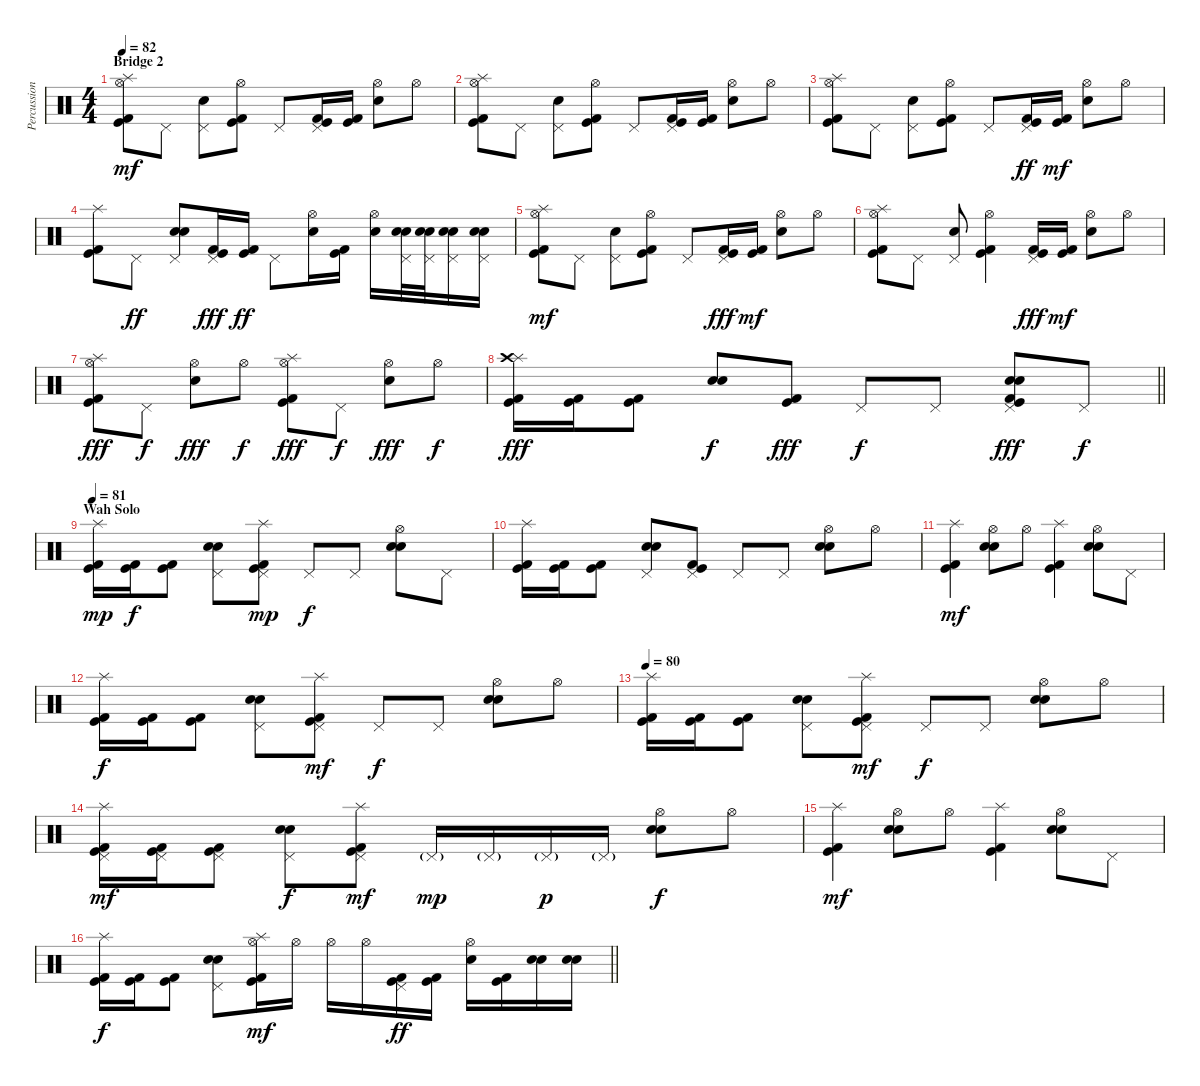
\track ("Percussion" "Percussion") {instrument percussion}
\staff {score}
\articulation defaults
\ts (4 4)
\section ("" "Bridge 2")
\tempo 82
\clef neutral
\ks c
("Splash (hit)" "Hi-Hat (open)" "Kick (hit)" "Kick (hit) 2").8{dy mf} "Pedal Hi-Hat (hit)".8 ("Snare (hit) 2" "Pedal Hi-Hat (hit)").8 ("Hi-Hat (open)" "Kick (hit)" "Kick (hit) 2").8 "Pedal Hi-Hat (hit)".8 ("Pedal Hi-Hat (hit)" "Kick (hit)" "Kick (hit) 2").16 ("Kick (hit)" "Kick (hit) 2").16 ("Snare (hit) 2" "Hi-Hat (open)").8 "Hi-Hat (open)".8 |
("Splash (hit)" "Hi-Hat (open)" "Kick (hit)" "Kick (hit) 2").8 "Pedal Hi-Hat (hit)".8 ("Snare (hit) 2" "Pedal Hi-Hat (hit)").8 ("Hi-Hat (open)" "Kick (hit)" "Kick (hit) 2").8 "Pedal Hi-Hat (hit)".8 ("Pedal Hi-Hat (hit)" "Kick (hit)" "Kick (hit) 2").16 ("Kick (hit)" "Kick (hit) 2").16 ("Snare (hit) 2" "Hi-Hat (open)").8 "Hi-Hat (open)".8 |
("Splash (hit)" "Hi-Hat (open)" "Kick (hit)" "Kick (hit) 2").8 "Pedal Hi-Hat (hit)".8 ("Snare (hit) 2" "Pedal Hi-Hat (hit)").8 ("Hi-Hat (open)" "Kick (hit)" "Kick (hit) 2").8 "Pedal Hi-Hat (hit)".8 ("Pedal Hi-Hat (hit)" "Kick (hit)" "Kick (hit) 2").16{dy ff} ("Kick (hit)" "Kick (hit) 2").16{dy mf} ("Snare (hit) 2" "Hi-Hat (open)").8 "Hi-Hat (open)".8 |
("Splash (hit)" "Kick (hit)" "Kick (hit) 2").8 "Pedal Hi-Hat (hit)".8{dy ff} ("Snare (hit) 2" "Electric Snare (hit)" "Pedal Hi-Hat (hit)").8 ("Pedal Hi-Hat (hit)" "Kick (hit)" "Kick (hit) 2").16{dy fff} ("Kick (hit)" "Kick (hit) 2").16{dy ff} "Pedal Hi-Hat (hit)".8 ("Snare (hit) 2" "Hi-Hat (open)").16 ("Kick (hit)" "Kick (hit) 2").16 ("Snare (hit) 2" "Hi-Hat (open)").16 ("Snare (hit) 2" "Electric Snare (hit)" "Pedal Hi-Hat (hit)").32 ("Snare (hit) 2" "Electric Snare (hit)" "Pedal Hi-Hat (hit)").32 ("Snare (hit) 2" "Electric Snare (hit)" "Pedal Hi-Hat (hit)").16 ("Snare (hit) 2" "Electric Snare (hit)" "Pedal Hi-Hat (hit)").16 |
("Splash (hit)" "Hi-Hat (open)" "Kick (hit)" "Kick (hit) 2").8{dy mf} "Pedal Hi-Hat (hit)".8 ("Snare (hit) 2" "Pedal Hi-Hat (hit)").8 ("Hi-Hat (open)" "Kick (hit)" "Kick (hit) 2").8 "Pedal Hi-Hat (hit)".8 ("Pedal Hi-Hat (hit)" "Kick (hit)" "Kick (hit) 2").16{dy fff} ("Kick (hit)" "Kick (hit) 2").16{dy mf} ("Snare (hit) 2" "Hi-Hat (open)").8 "Hi-Hat (open)".8 |
("Splash (hit)" "Hi-Hat (open)" "Kick (hit)" "Kick (hit) 2").8 "Pedal Hi-Hat (hit)".8 ("Snare (hit) 2" "Pedal Hi-Hat (hit)").8 ("Hi-Hat (open)" "Kick (hit)" "Kick (hit) 2").4 ("Pedal Hi-Hat (hit)" "Kick (hit)" "Kick (hit) 2").16{dy fff} ("Kick (hit)" "Kick (hit) 2").16{dy mf} ("Snare (hit) 2" "Hi-Hat (open)").8 "Hi-Hat (open)".8 |
("Splash (hit)" "Hi-Hat (open)" "Kick (hit)" "Kick (hit) 2").8{dy fff} "Pedal Hi-Hat (hit)".8{dy f} ("Snare (hit) 2" "Hi-Hat (open)").8{dy fff} "Hi-Hat (open)".8{dy f} ("Splash (hit)" "Hi-Hat (open)" "Kick (hit)" "Kick (hit) 2").8{dy fff} "Pedal Hi-Hat (hit)".8{dy f} ("Snare (hit) 2" "Hi-Hat (open)").8{dy fff} "Hi-Hat (open)".8{dy f} |
\barLineRight lightlight
("Splash (hit)" "Crash high (hit)" "Kick (hit)" "Kick (hit) 2").16{dy fff} ("Kick (hit)" "Kick (hit) 2").16 ("Kick (hit)" "Kick (hit) 2").8 ("Snare (hit) 2" "Electric Snare (hit)").8{dy f} ("Kick (hit)" "Kick (hit) 2").8{dy fff} "Pedal Hi-Hat (hit)".8{dy f} "Pedal Hi-Hat (hit)".8 ("Electric Snare (hit)" "Snare (hit) 2" "Pedal Hi-Hat (hit)" "Kick (hit)" "Kick (hit) 2").8{dy fff} "Pedal Hi-Hat (hit)".8{dy f} |
\section ("" "Wah Solo")
\tempo 81
("Splash (hit)" "Kick (hit)" "Kick (hit) 2").16{dy mp} ("Kick (hit)" "Kick (hit) 2").16{dy f} ("Kick (hit)" "Kick (hit) 2").8 ("Electric Snare (hit)" "Snare (hit) 2" "Pedal Hi-Hat (hit)").8 ("Splash (hit)" "Pedal Hi-Hat (hit)" "Kick (hit)" "Kick (hit) 2").8{dy mp} "Pedal Hi-Hat (hit)".8{dy f} "Pedal Hi-Hat (hit)".8 ("Electric Snare (hit)" "Snare (hit) 2" "Hi-Hat (open)").8 "Pedal Hi-Hat (hit)".8 |
("Splash (hit)" "Kick (hit)" "Kick (hit) 2").16 ("Kick (hit)" "Kick (hit) 2").16 ("Kick (hit)" "Kick (hit) 2").8 ("Electric Snare (hit)" "Snare (hit) 2" "Pedal Hi-Hat (hit)").8 ("Pedal Hi-Hat (hit)" "Kick (hit)" "Kick (hit) 2").8 "Pedal Hi-Hat (hit)".8 "Pedal Hi-Hat (hit)".8 ("Electric Snare (hit)" "Snare (hit) 2" "Hi-Hat (open)").8 "Hi-Hat (open)".8 |
("Splash (hit)" "Kick (hit)" "Kick (hit) 2").4{dy mf} ("Electric Snare (hit)" "Snare (hit) 2" "Hi-Hat (open)").8 "Hi-Hat (open)".8 ("Splash (hit)" "Kick (hit)" "Kick (hit) 2").4 ("Electric Snare (hit)" "Snare (hit) 2" "Hi-Hat (open)").8 "Pedal Hi-Hat (hit)".8 |
("Splash (hit)" "Kick (hit)" "Kick (hit) 2").16{dy f} ("Kick (hit)" "Kick (hit) 2").16 ("Kick (hit)" "Kick (hit) 2").8 ("Electric Snare (hit)" "Snare (hit) 2" "Pedal Hi-Hat (hit)").8 ("Splash (hit)" "Pedal Hi-Hat (hit)" "Kick (hit)" "Kick (hit) 2").8{dy mf} "Pedal Hi-Hat (hit)".8{dy f} "Pedal Hi-Hat (hit)".8 ("Electric Snare (hit)" "Snare (hit) 2" "Hi-Hat (open)").8 "Hi-Hat (open)".8 |
\tempo 80
("Splash (hit)" "Kick (hit)" "Kick (hit) 2").16 ("Kick (hit)" "Kick (hit) 2").16 ("Kick (hit)" "Kick (hit) 2").8 ("Electric Snare (hit)" "Snare (hit) 2" "Pedal Hi-Hat (hit)").8 ("Splash (hit)" "Pedal Hi-Hat (hit)" "Kick (hit)" "Kick (hit) 2").8{dy mf} "Pedal Hi-Hat (hit)".8{dy f} "Pedal Hi-Hat (hit)".8 ("Electric Snare (hit)" "Snare (hit) 2" "Hi-Hat (open)").8 "Hi-Hat (open)".8 |
("Splash (hit)" "Pedal Hi-Hat (hit)" "Kick (hit)" "Kick (hit) 2").16{dy mf} ("Pedal Hi-Hat (hit)" "Kick (hit)" "Kick (hit) 2").16 ("Pedal Hi-Hat (hit)" "Kick (hit)" "Kick (hit) 2").8 ("Electric Snare (hit)" "Snare (hit) 2" "Pedal Hi-Hat (hit)").8{dy f} ("Splash (hit)" "Pedal Hi-Hat (hit)" "Kick (hit)" "Kick (hit) 2").8{dy mf} "Pedal Hi-Hat (hit)"{g}.16{dy mp} "Pedal Hi-Hat (hit)"{g}.16 "Pedal Hi-Hat (hit)"{g}.16{dy p} "Pedal Hi-Hat (hit)"{g}.16 ("Electric Snare (hit)" "Snare (hit) 2" "Hi-Hat (open)").8{dy f} "Hi-Hat (open)".8 |
("Splash (hit)" "Kick (hit)" "Kick (hit) 2").4{dy mf} ("Electric Snare (hit)" "Snare (hit) 2" "Hi-Hat (open)").8 "Hi-Hat (open)".8 ("Splash (hit)" "Kick (hit)" "Kick (hit) 2").4 ("Electric Snare (hit)" "Snare (hit) 2" "Hi-Hat (open)").8 "Pedal Hi-Hat (hit)".8 |
\barLineRight lightlight
("Splash (hit)" "Kick (hit)" "Kick (hit) 2").16{dy f} ("Kick (hit)" "Kick (hit) 2").16 ("Kick (hit)" "Kick (hit) 2").8 ("Electric Snare (hit)" "Snare (hit) 2" "Pedal Hi-Hat (hit)").8 ("Splash (hit)" "Hi-Hat (open)" "Kick (hit)" "Kick (hit) 2").16{dy mf} "Hi-Hat (open)".16 "Hi-Hat (open)".16 "Hi-Hat (open)".16 ("Pedal Hi-Hat (hit)" "Kick (hit)" "Kick (hit) 2").16{dy ff} ("Kick (hit)" "Kick (hit) 2").16 ("Snare (hit) 2" "Hi-Hat (open)").16 ("Kick (hit)" "Kick (hit) 2").16 ("Electric Snare (hit)" "Snare (hit) 2").16 ("Electric Snare (hit)" "Snare (hit) 2").16
